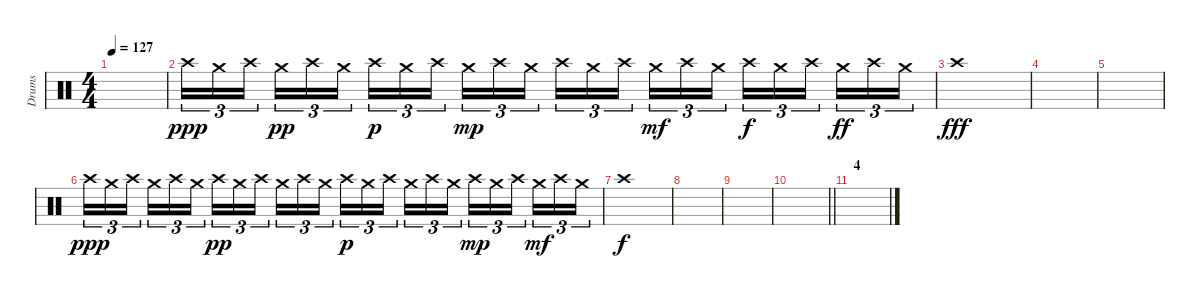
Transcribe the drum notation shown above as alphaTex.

\track ("Drums" "Drums") {instrument percussion}
\staff {score}
\articulation defaults
\ts (4 4)
\tempo 127
\clef neutral
\ks c
|
"Crash high (hit)".16{tu (3 2) dy ppp} "Crash medium (hit)".16{tu (3 2)} "Crash high (hit)".16{tu (3 2) beam splitsecondary} "Crash medium (hit)".16{tu (3 2) dy pp} "Crash high (hit)".16{tu (3 2)} "Crash medium (hit)".16{tu (3 2)} "Crash high (hit)".16{tu (3 2) dy p} "Crash medium (hit)".16{tu (3 2)} "Crash high (hit)".16{tu (3 2) beam splitsecondary} "Crash medium (hit)".16{tu (3 2) dy mp} "Crash high (hit)".16{tu (3 2)} "Crash medium (hit)".16{tu (3 2)} "Crash high (hit)".16{tu (3 2)} "Crash medium (hit)".16{tu (3 2)} "Crash high (hit)".16{tu (3 2) beam splitsecondary} "Crash medium (hit)".16{tu (3 2) dy mf} "Crash high (hit)".16{tu (3 2)} "Crash medium (hit)".16{tu (3 2)} "Crash high (hit)".16{tu (3 2) dy f} "Crash medium (hit)".16{tu (3 2)} "Crash high (hit)".16{tu (3 2) beam splitsecondary} "Crash medium (hit)".16{tu (3 2) dy ff} "Crash high (hit)".16{tu (3 2)} "Crash medium (hit)".16{tu (3 2)} |
"Crash high (hit)".1{dy fff} |
|
|
"Crash high (hit)".16{tu (3 2) dy ppp} "Crash medium (hit)".16{tu (3 2)} "Crash high (hit)".16{tu (3 2) beam splitsecondary} "Crash medium (hit)".16{tu (3 2)} "Crash high (hit)".16{tu (3 2)} "Crash medium (hit)".16{tu (3 2)} "Crash high (hit)".16{tu (3 2) dy pp} "Crash medium (hit)".16{tu (3 2)} "Crash high (hit)".16{tu (3 2) beam splitsecondary} "Crash medium (hit)".16{tu (3 2)} "Crash high (hit)".16{tu (3 2)} "Crash medium (hit)".16{tu (3 2)} "Crash high (hit)".16{tu (3 2) dy p} "Crash medium (hit)".16{tu (3 2)} "Crash high (hit)".16{tu (3 2) beam splitsecondary} "Crash medium (hit)".16{tu (3 2)} "Crash high (hit)".16{tu (3 2)} "Crash medium (hit)".16{tu (3 2)} "Crash high (hit)".16{tu (3 2) dy mp} "Crash medium (hit)".16{tu (3 2)} "Crash high (hit)".16{tu (3 2) beam splitsecondary} "Crash medium (hit)".16{tu (3 2) dy mf} "Crash high (hit)".16{tu (3 2)} "Crash medium (hit)".16{tu (3 2)} |
"Crash high (hit)".1{dy f} |
|
|
\barLineRight lightlight
|
\section ("" "4")
